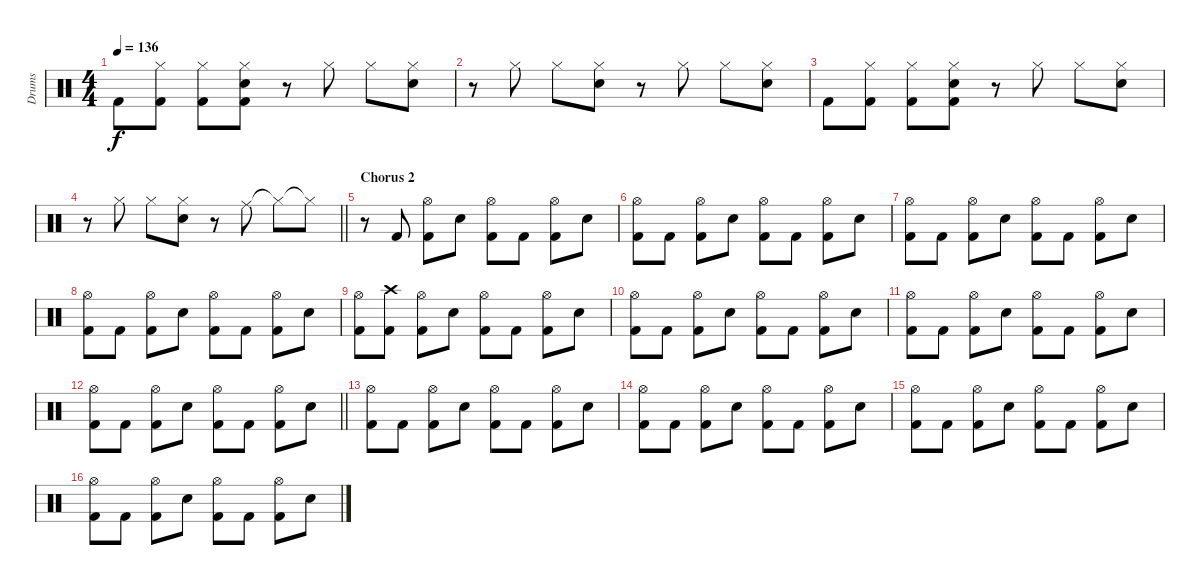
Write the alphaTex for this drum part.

\track ("Drums" "Drums") {instrument percussion}
\staff {score}
\articulation defaults
\ts (4 4)
\tempo 136
\clef neutral
\ks c "Kick (hit) 2".8{dy f}
("Kick (hit) 2" "Hi-Hat (closed)").8 ("Kick (hit) 2" "Hi-Hat (closed)").8 ("Kick (hit) 2" "Hi-Hat (closed)" "Snare (hit) 2").8 r.8 "Hi-Hat (closed)".8 "Hi-Hat (closed)".8 ("Hi-Hat (closed)" "Snare (hit) 2").8 |
r.8 "Hi-Hat (closed)".8 "Hi-Hat (closed)".8 ("Hi-Hat (closed)" "Snare (hit) 2").8 r.8 "Hi-Hat (closed)".8 "Hi-Hat (closed)".8 ("Hi-Hat (closed)" "Snare (hit) 2").8 |
"Kick (hit) 2".8 ("Kick (hit) 2" "Hi-Hat (closed)").8 ("Kick (hit) 2" "Hi-Hat (closed)").8 ("Kick (hit) 2" "Hi-Hat (closed)" "Snare (hit) 2").8 r.8 "Hi-Hat (closed)".8 "Hi-Hat (closed)".8 ("Hi-Hat (closed)" "Snare (hit) 2").8 |
\barLineRight lightlight
r.8 "Hi-Hat (closed)".8 "Hi-Hat (closed)".8 ("Hi-Hat (closed)" "Snare (hit) 2").8 r.8 "Ride (middle)".8 "Hi-Hat (closed)"{t}.8 "Hi-Hat (closed)"{t}.8 |
\section ("" "Chorus 2")
r.8 "Kick (hit) 2".8 ("Kick (hit) 2" "Hi-Hat (open)").8 "Snare (hit) 2".8 ("Kick (hit) 2" "Hi-Hat (open)").8 "Kick (hit) 2".8 ("Kick (hit) 2" "Hi-Hat (open)").8 "Snare (hit) 2".8 |
("Kick (hit) 2" "Hi-Hat (open)").8 "Kick (hit) 2".8 ("Kick (hit) 2" "Hi-Hat (open)").8 "Snare (hit) 2".8 ("Kick (hit) 2" "Hi-Hat (open)").8 "Kick (hit) 2".8 ("Kick (hit) 2" "Hi-Hat (open)").8 "Snare (hit) 2".8 |
("Kick (hit) 2" "Hi-Hat (open)").8 "Kick (hit) 2".8 ("Kick (hit) 2" "Hi-Hat (open)").8 "Snare (hit) 2".8 ("Kick (hit) 2" "Hi-Hat (open)").8 "Kick (hit) 2".8 ("Kick (hit) 2" "Hi-Hat (open)").8 "Snare (hit) 2".8 |
("Kick (hit) 2" "Hi-Hat (open)").8 "Kick (hit) 2".8 ("Kick (hit) 2" "Hi-Hat (open)").8 "Snare (hit) 2".8 ("Kick (hit) 2" "Hi-Hat (open)").8 "Kick (hit) 2".8 ("Kick (hit) 2" "Hi-Hat (open)").8 "Snare (hit) 2".8 |
("Kick (hit) 2" "Hi-Hat (open)").8 ("Kick (hit) 2" "Crash high (hit)").8 ("Kick (hit) 2" "Hi-Hat (open)").8 "Snare (hit) 2".8 ("Kick (hit) 2" "Hi-Hat (open)").8 "Kick (hit) 2".8 ("Kick (hit) 2" "Hi-Hat (open)").8 "Snare (hit) 2".8 |
("Kick (hit) 2" "Hi-Hat (open)").8 "Kick (hit) 2".8 ("Kick (hit) 2" "Hi-Hat (open)").8 "Snare (hit) 2".8 ("Kick (hit) 2" "Hi-Hat (open)").8 "Kick (hit) 2".8 ("Kick (hit) 2" "Hi-Hat (open)").8 "Snare (hit) 2".8 |
("Kick (hit) 2" "Hi-Hat (open)").8 "Kick (hit) 2".8 ("Kick (hit) 2" "Hi-Hat (open)").8 "Snare (hit) 2".8 ("Kick (hit) 2" "Hi-Hat (open)").8 "Kick (hit) 2".8 ("Kick (hit) 2" "Hi-Hat (open)").8 "Snare (hit) 2".8 |
\barLineRight lightlight
("Kick (hit) 2" "Hi-Hat (open)").8 "Kick (hit) 2".8 ("Kick (hit) 2" "Hi-Hat (open)").8 "Snare (hit) 2".8 ("Kick (hit) 2" "Hi-Hat (open)").8 "Kick (hit) 2".8 ("Kick (hit) 2" "Hi-Hat (open)").8 "Snare (hit) 2".8 |
\section ("" "")
("Kick (hit) 2" "Hi-Hat (open)").8 "Kick (hit) 2".8 ("Kick (hit) 2" "Hi-Hat (open)").8 "Snare (hit) 2".8 ("Kick (hit) 2" "Hi-Hat (open)").8 "Kick (hit) 2".8 ("Kick (hit) 2" "Hi-Hat (open)").8 "Snare (hit) 2".8 |
("Kick (hit) 2" "Hi-Hat (open)").8 "Kick (hit) 2".8 ("Kick (hit) 2" "Hi-Hat (open)").8 "Snare (hit) 2".8 ("Kick (hit) 2" "Hi-Hat (open)").8 "Kick (hit) 2".8 ("Kick (hit) 2" "Hi-Hat (open)").8 "Snare (hit) 2".8 |
("Kick (hit) 2" "Hi-Hat (open)").8 "Kick (hit) 2".8 ("Kick (hit) 2" "Hi-Hat (open)").8 "Snare (hit) 2".8 ("Kick (hit) 2" "Hi-Hat (open)").8 "Kick (hit) 2".8 ("Kick (hit) 2" "Hi-Hat (open)").8 "Snare (hit) 2".8 |
("Kick (hit) 2" "Hi-Hat (open)").8 "Kick (hit) 2".8 ("Kick (hit) 2" "Hi-Hat (open)").8 "Snare (hit) 2".8 ("Kick (hit) 2" "Hi-Hat (open)").8 "Kick (hit) 2".8 ("Kick (hit) 2" "Hi-Hat (open)").8 "Snare (hit) 2".8
